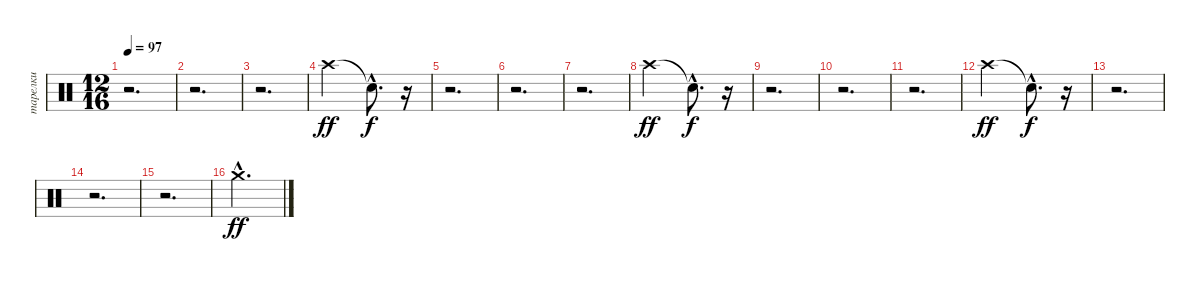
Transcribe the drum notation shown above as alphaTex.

\track ("тарелки" "тарелки") {instrument percussion}
\staff {score}
\articulation defaults
\ts (12 16)
\tempo 97
\clef neutral
\ks c
r.2{d dy f} |
r.2{d} |
r.2{d} |
"Crash high (hit)".2{dy ff} "Snare (hit)"{hac t}.8{d dy f} r.16 |
r.2{d} |
r.2{d} |
r.2{d} |
"Crash high (hit)".2{dy ff} "Snare (hit)"{hac t}.8{d dy f} r.16 |
r.2{d} |
r.2{d} |
r.2{d} |
"Crash high (hit)".2{dy ff} "Snare (hit)"{hac t}.8{d dy f} r.16 |
r.2{d} |
r.2{d} |
r.2{d} |
"Crash medium (hit)"{hac}.2{d dy ff}
